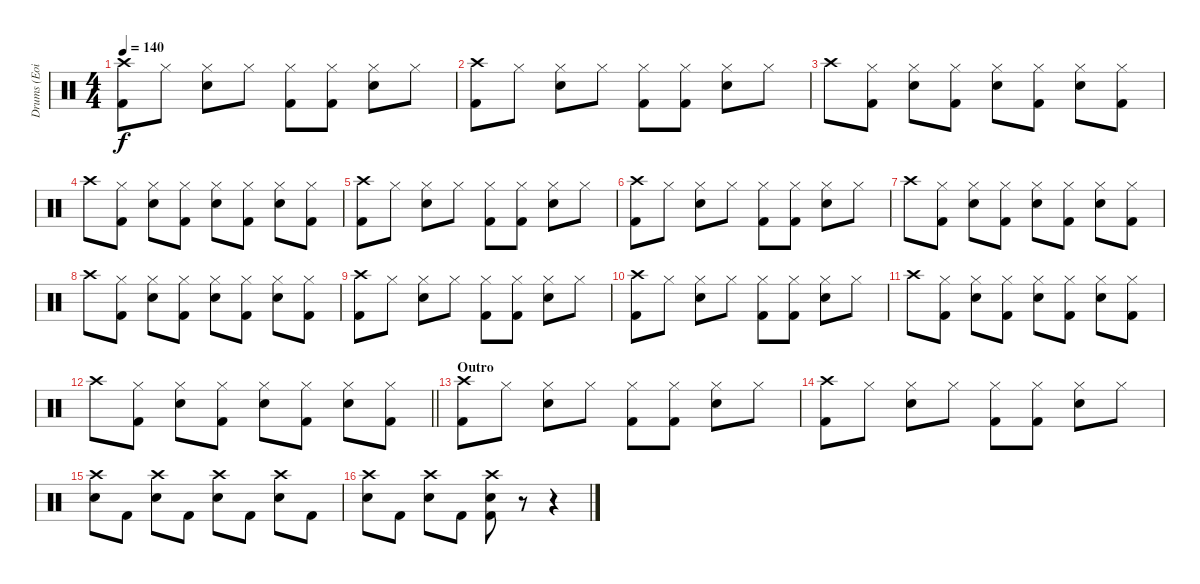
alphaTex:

\track ("Drums (Eoin)" "Drums (Eoi") {instrument percussion}
\staff {score}
\articulation defaults
\ts (4 4)
\tempo 140
\clef neutral
\ks c
("Crash high (hit)" "Kick (hit) 2").8{dy f} "Hi-Hat (closed)".8 ("Hi-Hat (closed)" "Electric Snare (hit)").8 "Hi-Hat (closed)".8 ("Hi-Hat (closed)" "Kick (hit) 2").8 ("Hi-Hat (closed)" "Kick (hit) 2").8 ("Hi-Hat (closed)" "Electric Snare (hit)").8 "Hi-Hat (closed)".8 |
("Crash high (hit)" "Kick (hit) 2").8 "Hi-Hat (closed)".8 ("Hi-Hat (closed)" "Electric Snare (hit)").8 "Hi-Hat (closed)".8 ("Hi-Hat (closed)" "Kick (hit) 2").8 ("Hi-Hat (closed)" "Kick (hit) 2").8 ("Hi-Hat (closed)" "Electric Snare (hit)").8 "Hi-Hat (closed)".8 |
"Crash high (hit)".8 ("Hi-Hat (closed)" "Kick (hit) 2").8 ("Hi-Hat (closed)" "Electric Snare (hit)").8 ("Hi-Hat (closed)" "Kick (hit) 2").8 ("Hi-Hat (closed)" "Electric Snare (hit)").8 ("Hi-Hat (closed)" "Kick (hit) 2").8 ("Hi-Hat (closed)" "Electric Snare (hit)").8 ("Hi-Hat (closed)" "Kick (hit) 2").8 |
"Crash high (hit)".8 ("Hi-Hat (closed)" "Kick (hit) 2").8 ("Hi-Hat (closed)" "Electric Snare (hit)").8 ("Hi-Hat (closed)" "Kick (hit) 2").8 ("Hi-Hat (closed)" "Electric Snare (hit)").8 ("Hi-Hat (closed)" "Kick (hit) 2").8 ("Hi-Hat (closed)" "Electric Snare (hit)").8 ("Hi-Hat (closed)" "Kick (hit) 2").8 |
("Crash high (hit)" "Kick (hit) 2").8 "Hi-Hat (closed)".8 ("Hi-Hat (closed)" "Electric Snare (hit)").8 "Hi-Hat (closed)".8 ("Hi-Hat (closed)" "Kick (hit) 2").8 ("Hi-Hat (closed)" "Kick (hit) 2").8 ("Hi-Hat (closed)" "Electric Snare (hit)").8 "Hi-Hat (closed)".8 |
("Crash high (hit)" "Kick (hit) 2").8 "Hi-Hat (closed)".8 ("Hi-Hat (closed)" "Electric Snare (hit)").8 "Hi-Hat (closed)".8 ("Hi-Hat (closed)" "Kick (hit) 2").8 ("Hi-Hat (closed)" "Kick (hit) 2").8 ("Hi-Hat (closed)" "Electric Snare (hit)").8 "Hi-Hat (closed)".8 |
"Crash high (hit)".8 ("Hi-Hat (closed)" "Kick (hit) 2").8 ("Hi-Hat (closed)" "Electric Snare (hit)").8 ("Hi-Hat (closed)" "Kick (hit) 2").8 ("Hi-Hat (closed)" "Electric Snare (hit)").8 ("Hi-Hat (closed)" "Kick (hit) 2").8 ("Hi-Hat (closed)" "Electric Snare (hit)").8 ("Hi-Hat (closed)" "Kick (hit) 2").8 |
"Crash high (hit)".8 ("Hi-Hat (closed)" "Kick (hit) 2").8 ("Hi-Hat (closed)" "Electric Snare (hit)").8 ("Hi-Hat (closed)" "Kick (hit) 2").8 ("Hi-Hat (closed)" "Electric Snare (hit)").8 ("Hi-Hat (closed)" "Kick (hit) 2").8 ("Hi-Hat (closed)" "Electric Snare (hit)").8 ("Hi-Hat (closed)" "Kick (hit) 2").8 |
("Crash high (hit)" "Kick (hit) 2").8 "Hi-Hat (closed)".8 ("Hi-Hat (closed)" "Electric Snare (hit)").8 "Hi-Hat (closed)".8 ("Hi-Hat (closed)" "Kick (hit) 2").8 ("Hi-Hat (closed)" "Kick (hit) 2").8 ("Hi-Hat (closed)" "Electric Snare (hit)").8 "Hi-Hat (closed)".8 |
("Crash high (hit)" "Kick (hit) 2").8 "Hi-Hat (closed)".8 ("Hi-Hat (closed)" "Electric Snare (hit)").8 "Hi-Hat (closed)".8 ("Hi-Hat (closed)" "Kick (hit) 2").8 ("Hi-Hat (closed)" "Kick (hit) 2").8 ("Hi-Hat (closed)" "Electric Snare (hit)").8 "Hi-Hat (closed)".8 |
"Crash high (hit)".8 ("Hi-Hat (closed)" "Kick (hit) 2").8 ("Hi-Hat (closed)" "Electric Snare (hit)").8 ("Hi-Hat (closed)" "Kick (hit) 2").8 ("Hi-Hat (closed)" "Electric Snare (hit)").8 ("Hi-Hat (closed)" "Kick (hit) 2").8 ("Hi-Hat (closed)" "Electric Snare (hit)").8 ("Hi-Hat (closed)" "Kick (hit) 2").8 |
\barLineRight lightlight "Crash high (hit)".8
("Hi-Hat (closed)" "Kick (hit) 2").8 ("Hi-Hat (closed)" "Electric Snare (hit)").8 ("Hi-Hat (closed)" "Kick (hit) 2").8 ("Hi-Hat (closed)" "Electric Snare (hit)").8 ("Hi-Hat (closed)" "Kick (hit) 2").8 ("Hi-Hat (closed)" "Electric Snare (hit)").8 ("Hi-Hat (closed)" "Kick (hit) 2").8 |
\section ("" "Outro")
("Crash high (hit)" "Kick (hit) 2").8 "Hi-Hat (closed)".8 ("Hi-Hat (closed)" "Electric Snare (hit)").8 "Hi-Hat (closed)".8 ("Hi-Hat (closed)" "Kick (hit) 2").8 ("Hi-Hat (closed)" "Kick (hit) 2").8 ("Hi-Hat (closed)" "Electric Snare (hit)").8 "Hi-Hat (closed)".8 |
("Crash high (hit)" "Kick (hit) 2").8 "Hi-Hat (closed)".8 ("Hi-Hat (closed)" "Electric Snare (hit)").8 "Hi-Hat (closed)".8 ("Hi-Hat (closed)" "Kick (hit) 2").8 ("Hi-Hat (closed)" "Kick (hit) 2").8 ("Hi-Hat (closed)" "Electric Snare (hit)").8 "Hi-Hat (closed)".8 |
("Crash high (hit)" "Electric Snare (hit)").8 "Kick (hit) 2".8 ("Crash high (hit)" "Electric Snare (hit)").8 "Kick (hit) 2".8 ("Crash high (hit)" "Electric Snare (hit)").8 "Kick (hit) 2".8 ("Crash high (hit)" "Electric Snare (hit)").8 "Kick (hit) 2".8 |
("Crash high (hit)" "Electric Snare (hit)").8 "Kick (hit) 2".8 ("Crash high (hit)" "Electric Snare (hit)").8 "Kick (hit) 2".8 ("Crash high (hit)" "Kick (hit) 2" "Electric Snare (hit)").8 r.8 r.4
